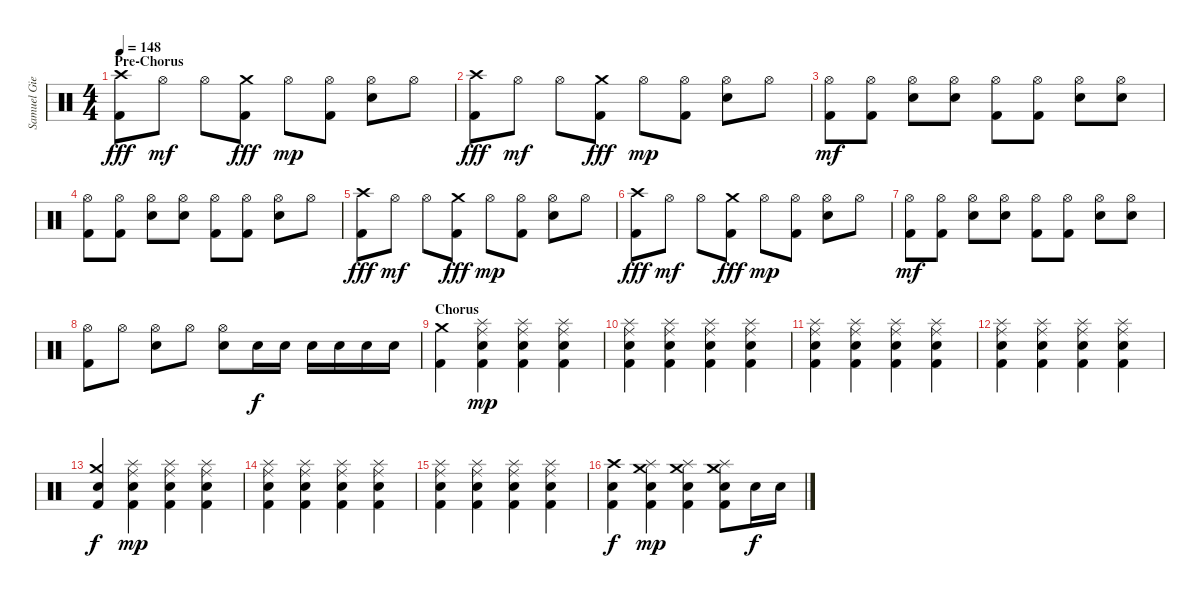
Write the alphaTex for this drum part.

\track ("Samuel Giers - Drum" "Samuel Gie") {instrument percussion}
\staff {score}
\articulation defaults
\ts (4 4)
\section ("" "Pre-Chorus")
\tempo 148
\clef neutral
\ks c
("Crash high (hit)" "Kick (hit) 2").8{dy fff} "Hi-Hat (open)".8{dy mf} "Hi-Hat (open)".8 ("Crash medium (hit)" "Kick (hit) 2").8{dy fff} "Hi-Hat (open)".8{dy mp} ("Hi-Hat (open)" "Kick (hit) 2").8 ("Hi-Hat (open)" "Snare (hit) 2").8 "Hi-Hat (open)".8 |
("Crash high (hit)" "Kick (hit) 2").8{dy fff} "Hi-Hat (open)".8{dy mf} "Hi-Hat (open)".8 ("Crash medium (hit)" "Kick (hit) 2").8{dy fff} "Hi-Hat (open)".8{dy mp} ("Hi-Hat (open)" "Kick (hit) 2").8 ("Hi-Hat (open)" "Snare (hit) 2").8 "Hi-Hat (open)".8 |
("Hi-Hat (open)" "Kick (hit) 2").8{dy mf} ("Hi-Hat (open)" "Kick (hit) 2").8 ("Hi-Hat (open)" "Snare (hit) 2").8 ("Hi-Hat (open)" "Snare (hit) 2").8 ("Hi-Hat (open)" "Kick (hit) 2").8 ("Hi-Hat (open)" "Kick (hit) 2").8 ("Hi-Hat (open)" "Snare (hit) 2").8 ("Hi-Hat (open)" "Snare (hit) 2").8 |
("Hi-Hat (open)" "Kick (hit) 2").8 ("Hi-Hat (open)" "Kick (hit) 2").8 ("Hi-Hat (open)" "Snare (hit) 2").8 ("Hi-Hat (open)" "Snare (hit) 2").8 ("Hi-Hat (open)" "Kick (hit) 2").8 ("Hi-Hat (open)" "Kick (hit) 2").8 ("Hi-Hat (open)" "Snare (hit) 2").8 "Hi-Hat (open)".8 |
("Crash high (hit)" "Kick (hit) 2").8{dy fff} "Hi-Hat (open)".8{dy mf} "Hi-Hat (open)".8 ("Crash medium (hit)" "Kick (hit) 2").8{dy fff} "Hi-Hat (open)".8{dy mp} ("Hi-Hat (open)" "Kick (hit) 2").8 ("Hi-Hat (open)" "Snare (hit) 2").8 "Hi-Hat (open)".8 |
("Crash high (hit)" "Kick (hit) 2").8{dy fff} "Hi-Hat (open)".8{dy mf} "Hi-Hat (open)".8 ("Crash medium (hit)" "Kick (hit) 2").8{dy fff} "Hi-Hat (open)".8{dy mp} ("Hi-Hat (open)" "Kick (hit) 2").8 ("Hi-Hat (open)" "Snare (hit) 2").8 "Hi-Hat (open)".8 |
("Hi-Hat (open)" "Kick (hit) 2").8{dy mf} ("Hi-Hat (open)" "Kick (hit) 2").8 ("Hi-Hat (open)" "Snare (hit) 2").8 ("Hi-Hat (open)" "Snare (hit) 2").8 ("Hi-Hat (open)" "Kick (hit) 2").8 ("Hi-Hat (open)" "Kick (hit) 2").8 ("Hi-Hat (open)" "Snare (hit) 2").8 ("Hi-Hat (open)" "Snare (hit) 2").8 |
("Hi-Hat (open)" "Kick (hit) 2").8 "Hi-Hat (open)".8 ("Hi-Hat (open)" "Snare (hit) 2").8 "Hi-Hat (open)".8 ("Hi-Hat (open)" "Snare (hit) 2").8 "Snare (hit) 2".16{dy f} "Snare (hit) 2".16 "Snare (hit) 2".16 "Snare (hit) 2".16 "Snare (hit) 2".16 "Snare (hit) 2".16 |
\section ("" "Chorus")
("Crash medium (hit)" "Kick (hit) 2").4 ("Ride (middle)" "Splash (hit)" "Snare (hit) 2" "Kick (hit) 2").4{dy mp} ("Ride (middle)" "Splash (hit)" "Snare (hit) 2" "Kick (hit) 2").4 ("Ride (middle)" "Splash (hit)" "Snare (hit) 2" "Kick (hit) 2").4 |
("Ride (middle)" "Splash (hit)" "Snare (hit) 2" "Kick (hit) 2").4 ("Ride (middle)" "Splash (hit)" "Snare (hit) 2" "Kick (hit) 2").4 ("Ride (middle)" "Splash (hit)" "Snare (hit) 2" "Kick (hit) 2").4 ("Ride (middle)" "Splash (hit)" "Snare (hit) 2" "Kick (hit) 2").4 |
("Ride (middle)" "Splash (hit)" "Snare (hit) 2" "Kick (hit) 2").4 ("Ride (middle)" "Splash (hit)" "Snare (hit) 2" "Kick (hit) 2").4 ("Ride (middle)" "Splash (hit)" "Snare (hit) 2" "Kick (hit) 2").4 ("Ride (middle)" "Splash (hit)" "Snare (hit) 2" "Kick (hit) 2").4 |
("Ride (middle)" "Splash (hit)" "Snare (hit) 2" "Kick (hit) 2").4 ("Ride (middle)" "Splash (hit)" "Snare (hit) 2" "Kick (hit) 2").4 ("Ride (middle)" "Splash (hit)" "Snare (hit) 2" "Kick (hit) 2").4 ("Ride (middle)" "Splash (hit)" "Snare (hit) 2" "Kick (hit) 2").4 |
("Crash medium (hit)" "Snare (hit) 2" "Kick (hit) 2").4{dy f} ("Ride (middle)" "Splash (hit)" "Snare (hit) 2" "Kick (hit) 2").4{dy mp} ("Ride (middle)" "Splash (hit)" "Snare (hit) 2" "Kick (hit) 2").4 ("Ride (middle)" "Splash (hit)" "Snare (hit) 2" "Kick (hit) 2").4 |
("Ride (middle)" "Splash (hit)" "Snare (hit) 2" "Kick (hit) 2").4 ("Ride (middle)" "Splash (hit)" "Snare (hit) 2" "Kick (hit) 2").4 ("Ride (middle)" "Splash (hit)" "Snare (hit) 2" "Kick (hit) 2").4 ("Ride (middle)" "Splash (hit)" "Snare (hit) 2" "Kick (hit) 2").4 |
("Ride (middle)" "Splash (hit)" "Snare (hit) 2" "Kick (hit) 2").4 ("Ride (middle)" "Splash (hit)" "Snare (hit) 2" "Kick (hit) 2").4 ("Ride (middle)" "Splash (hit)" "Snare (hit) 2" "Kick (hit) 2").4 ("Ride (middle)" "Splash (hit)" "Snare (hit) 2" "Kick (hit) 2").4 |
("Crash high (hit)" "Snare (hit) 2" "Kick (hit) 2").4{dy f} ("Crash medium (hit)" "Splash (hit)" "Snare (hit) 2" "Kick (hit) 2").4{dy mp} ("Crash medium (hit)" "Splash (hit)" "Snare (hit) 2" "Kick (hit) 2").4 ("Crash medium (hit)" "Splash (hit)" "Snare (hit) 2" "Kick (hit) 2").8 "Snare (hit) 2".16{dy f} "Snare (hit) 2".16
